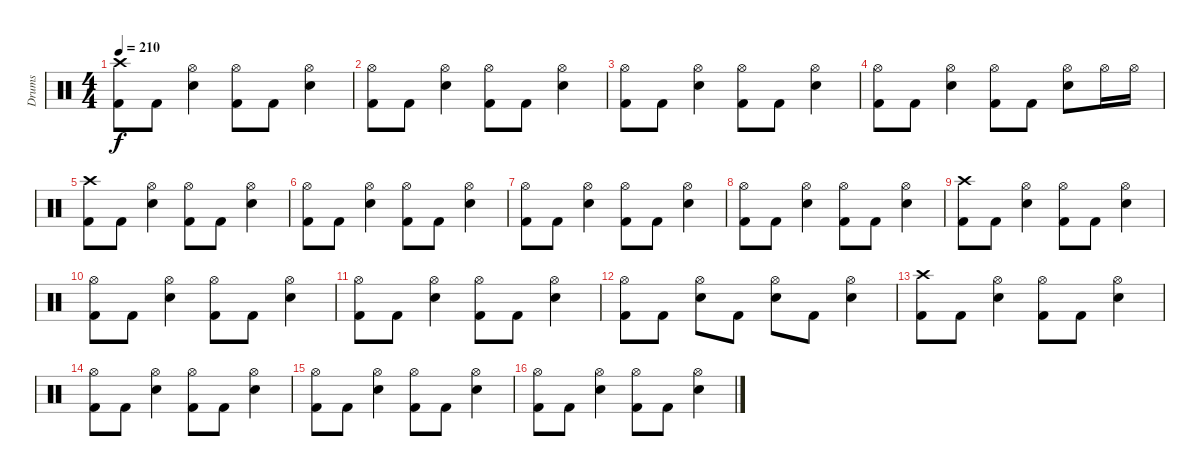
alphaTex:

\track ("Drums" "Drums") {instrument percussion}
\staff {score}
\articulation defaults
\ts (4 4)
\tempo 210
\clef neutral
\ks c
("Crash high (hit)" "Kick (hit) 2").8{dy f} "Kick (hit) 2".8 ("Hi-Hat (open)" "Snare (hit) 2").4 ("Hi-Hat (open)" "Kick (hit) 2").8 "Kick (hit) 2".8 ("Hi-Hat (open)" "Snare (hit) 2").4 |
("Hi-Hat (open)" "Kick (hit) 2").8 "Kick (hit) 2".8 ("Hi-Hat (open)" "Snare (hit) 2").4 ("Hi-Hat (open)" "Kick (hit) 2").8 "Kick (hit) 2".8 ("Hi-Hat (open)" "Snare (hit) 2").4 |
("Hi-Hat (open)" "Kick (hit) 2").8 "Kick (hit) 2".8 ("Hi-Hat (open)" "Snare (hit) 2").4 ("Hi-Hat (open)" "Kick (hit) 2").8 "Kick (hit) 2".8 ("Hi-Hat (open)" "Snare (hit) 2").4 |
("Hi-Hat (open)" "Kick (hit) 2").8 "Kick (hit) 2".8 ("Hi-Hat (open)" "Snare (hit) 2").4 ("Hi-Hat (open)" "Kick (hit) 2").8 "Kick (hit) 2".8 ("Hi-Hat (open)" "Snare (hit) 2").8 "Hi-Hat (open)".16 "Hi-Hat (open)".16 |
("Crash high (hit)" "Kick (hit) 2").8 "Kick (hit) 2".8 ("Hi-Hat (open)" "Snare (hit) 2").4 ("Hi-Hat (open)" "Kick (hit) 2").8 "Kick (hit) 2".8 ("Hi-Hat (open)" "Snare (hit) 2").4 |
("Hi-Hat (open)" "Kick (hit) 2").8 "Kick (hit) 2".8 ("Hi-Hat (open)" "Snare (hit) 2").4 ("Hi-Hat (open)" "Kick (hit) 2").8 "Kick (hit) 2".8 ("Hi-Hat (open)" "Snare (hit) 2").4 |
("Hi-Hat (open)" "Kick (hit) 2").8 "Kick (hit) 2".8 ("Hi-Hat (open)" "Snare (hit) 2").4 ("Hi-Hat (open)" "Kick (hit) 2").8 "Kick (hit) 2".8 ("Hi-Hat (open)" "Snare (hit) 2").4 |
("Hi-Hat (open)" "Kick (hit) 2").8 "Kick (hit) 2".8 ("Hi-Hat (open)" "Snare (hit) 2").4 ("Hi-Hat (open)" "Kick (hit) 2").8 "Kick (hit) 2".8 ("Hi-Hat (open)" "Snare (hit) 2").4 |
("Crash high (hit)" "Kick (hit) 2").8 "Kick (hit) 2".8 ("Hi-Hat (open)" "Snare (hit) 2").4 ("Hi-Hat (open)" "Kick (hit) 2").8 "Kick (hit) 2".8 ("Hi-Hat (open)" "Snare (hit) 2").4 |
("Hi-Hat (open)" "Kick (hit) 2").8 "Kick (hit) 2".8 ("Hi-Hat (open)" "Snare (hit) 2").4 ("Hi-Hat (open)" "Kick (hit) 2").8 "Kick (hit) 2".8 ("Hi-Hat (open)" "Snare (hit) 2").4 |
("Hi-Hat (open)" "Kick (hit) 2").8 "Kick (hit) 2".8 ("Hi-Hat (open)" "Snare (hit) 2").4 ("Hi-Hat (open)" "Kick (hit) 2").8 "Kick (hit) 2".8 ("Hi-Hat (open)" "Snare (hit) 2").4 |
("Hi-Hat (open)" "Kick (hit) 2").8 "Kick (hit) 2".8 ("Hi-Hat (open)" "Snare (hit) 2").8 "Kick (hit) 2".8 ("Hi-Hat (open)" "Snare (hit) 2").8 "Kick (hit) 2".8 ("Hi-Hat (open)" "Snare (hit) 2").4 |
("Crash high (hit)" "Kick (hit) 2").8 "Kick (hit) 2".8 ("Hi-Hat (open)" "Snare (hit) 2").4 ("Hi-Hat (open)" "Kick (hit) 2").8 "Kick (hit) 2".8 ("Hi-Hat (open)" "Snare (hit) 2").4 |
("Hi-Hat (open)" "Kick (hit) 2").8 "Kick (hit) 2".8 ("Hi-Hat (open)" "Snare (hit) 2").4 ("Hi-Hat (open)" "Kick (hit) 2").8 "Kick (hit) 2".8 ("Hi-Hat (open)" "Snare (hit) 2").4 |
("Hi-Hat (open)" "Kick (hit) 2").8 "Kick (hit) 2".8 ("Hi-Hat (open)" "Snare (hit) 2").4 ("Hi-Hat (open)" "Kick (hit) 2").8 "Kick (hit) 2".8 ("Hi-Hat (open)" "Snare (hit) 2").4 |
("Hi-Hat (open)" "Kick (hit) 2").8 "Kick (hit) 2".8 ("Hi-Hat (open)" "Snare (hit) 2").4 ("Hi-Hat (open)" "Kick (hit) 2").8 "Kick (hit) 2".8 ("Hi-Hat (open)" "Snare (hit) 2").4
